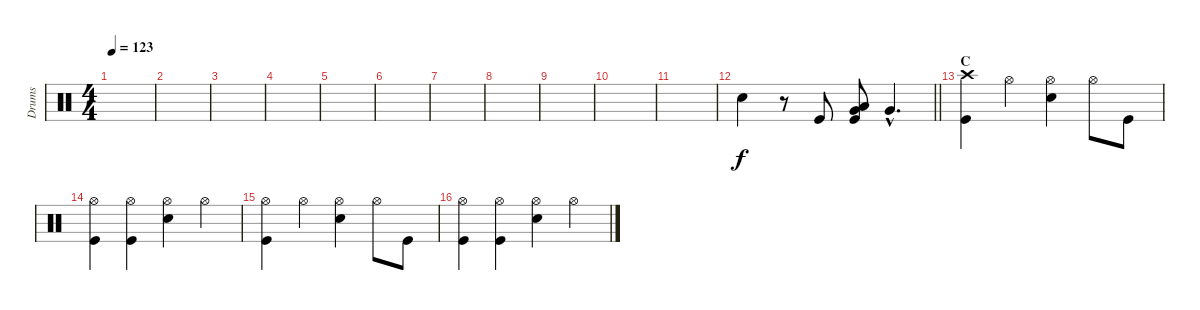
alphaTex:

\track ("Drums" "Drums") {instrument percussion}
\staff {score}
\articulation defaults
\ts (4 4)
\tempo 123
\clef neutral
\ks c
|
|
|
|
|
|
|
|
|
|
|
\barLineRight lightlight "Electric Snare (hit)".4
r.8 "Kick (hit)".8 ("Low Tom (hit)" "Very Low Tom (hit)" "Kick (hit)").8 "Very Low Tom (hit)"{hac}.4{d} |
\section ("" "C")
("Crash high (hit)" "Kick (hit)").4 "Hi-Hat (open)".4 ("Hi-Hat (open)" "Electric Snare (hit)").4 "Hi-Hat (open)".8 "Kick (hit)".8 |
("Hi-Hat (open)" "Kick (hit)").4 ("Hi-Hat (open)" "Kick (hit)").4 ("Hi-Hat (open)" "Electric Snare (hit)").4 "Hi-Hat (open)".4 |
("Hi-Hat (open)" "Kick (hit)").4 "Hi-Hat (open)".4 ("Hi-Hat (open)" "Electric Snare (hit)").4 "Hi-Hat (open)".8 "Kick (hit)".8 |
("Hi-Hat (open)" "Kick (hit)").4 ("Hi-Hat (open)" "Kick (hit)").4 ("Hi-Hat (open)" "Electric Snare (hit)").4 "Hi-Hat (open)".4
